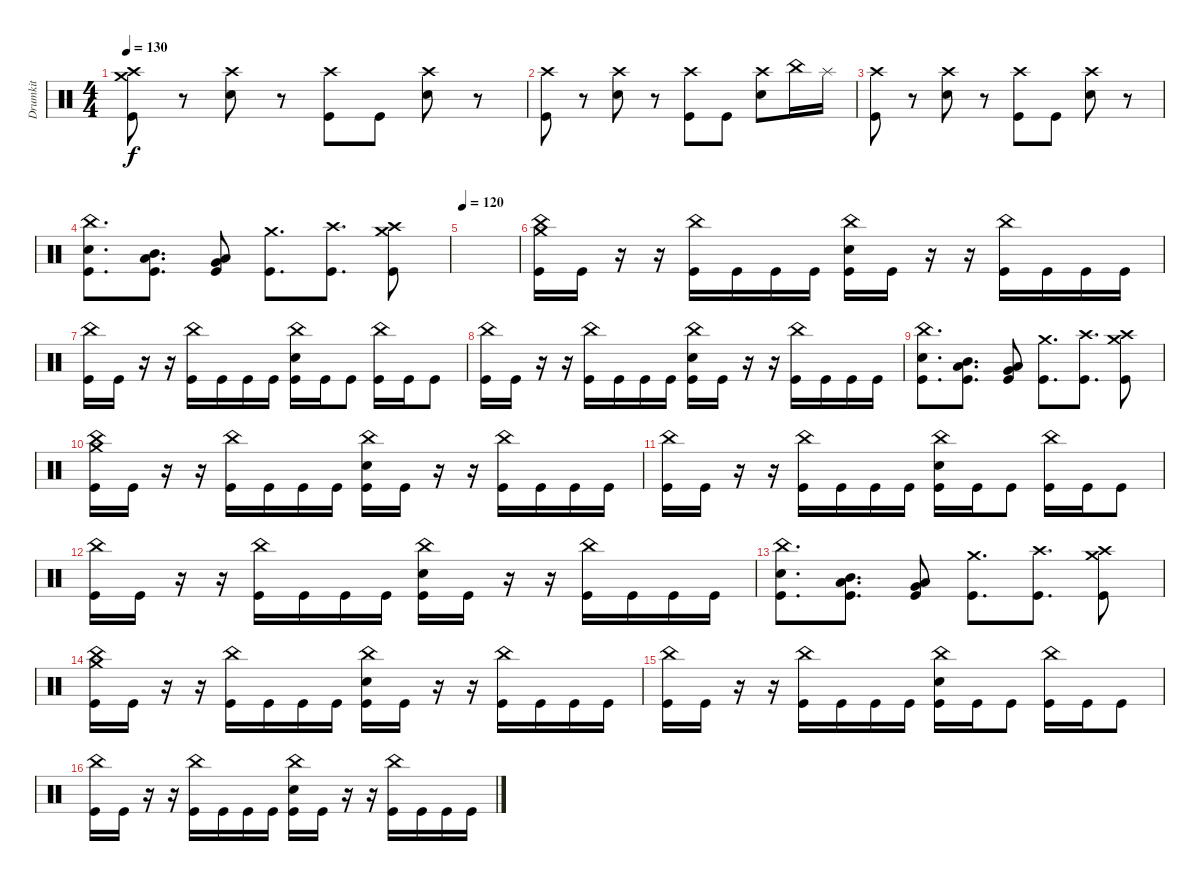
\track ("Drumkit" "Drumkit") {instrument percussion}
\staff {score}
\articulation defaults
\ts (4 4)
\tempo 130
\clef neutral
\ks c
("Kick (hit)" "Crash high (hit)" "Crash medium (hit)").8{dy f} r.8 ("Snare (hit) 2" "Crash high (hit)").8 r.8 ("Kick (hit)" "Crash high (hit)").8 "Kick (hit)".8 ("Crash high (hit)" "Snare (hit) 2").8 r.8 |
("Kick (hit)" "Crash high (hit)").8 r.8 ("Snare (hit) 2" "Crash high (hit)").8 r.8 ("Kick (hit)" "Crash high (hit)").8 "Kick (hit)".8 ("Snare (hit) 2" "Crash high (hit)").8 "China (hit)".16 "Splash (hit)".16 |
("Kick (hit)" "Crash high (hit)").8 r.8 ("Snare (hit) 2" "Crash high (hit)").8 r.8 ("Kick (hit)" "Crash high (hit)").8 "Kick (hit)".8 ("Crash high (hit)" "Snare (hit) 2").8 r.8 |
("China (hit)" "Snare (hit) 2" "Kick (hit)").8{d} ("Mid Tom (hit)" "Low Tom (hit)" "Kick (hit)").8{d} ("Kick (hit)" "Low Tom (hit)" "Very Low Tom (hit)").8 ("Crash medium (hit)" "Kick (hit)").8{d} ("Kick (hit)" "Crash high (hit)").8{d} ("Crash medium (hit)" "Crash high (hit)" "Kick (hit)").8 |
\tempo 120
|
("Kick (hit)" "China (hit)" "Crash medium (hit)").16 "Kick (hit)".16 r.16 r.16 ("Kick (hit)" "China (hit)").16 "Kick (hit)".16 "Kick (hit)".16 "Kick (hit)".16 ("Kick (hit)" "Snare (hit) 2" "China (hit)").16 "Kick (hit)".16 r.16 r.16 ("Kick (hit)" "China (hit)").16 "Kick (hit)".16 "Kick (hit)".16 "Kick (hit)".16 |
("Kick (hit)" "China (hit)").16 "Kick (hit)".16 r.16 r.16 ("Kick (hit)" "China (hit)").16 "Kick (hit)".16 "Kick (hit)".16 "Kick (hit)".16 ("Kick (hit)" "Snare (hit) 2" "China (hit)").16 "Kick (hit)".16 "Kick (hit)".8 ("Kick (hit)" "China (hit)").16 "Kick (hit)".16 "Kick (hit)".8 |
("Kick (hit)" "China (hit)").16 "Kick (hit)".16 r.16 r.16 ("Kick (hit)" "China (hit)").16 "Kick (hit)".16 "Kick (hit)".16 "Kick (hit)".16 ("Kick (hit)" "China (hit)" "Snare (hit) 2").16 "Kick (hit)".16 r.16 r.16 ("Kick (hit)" "China (hit)").16 "Kick (hit)".16 "Kick (hit)".16 "Kick (hit)".16 |
("China (hit)" "Snare (hit) 2" "Kick (hit)").8{d} ("Mid Tom (hit)" "Low Tom (hit)" "Kick (hit)").8{d} ("Kick (hit)" "Low Tom (hit)" "Very Low Tom (hit)").8 ("Crash medium (hit)" "Kick (hit)").8{d} ("Kick (hit)" "Crash high (hit)").8{d} ("Crash medium (hit)" "Crash high (hit)" "Kick (hit)").8 |
("Kick (hit)" "China (hit)" "Crash medium (hit)").16 "Kick (hit)".16 r.16 r.16 ("Kick (hit)" "China (hit)").16 "Kick (hit)".16 "Kick (hit)".16 "Kick (hit)".16 ("Kick (hit)" "Snare (hit) 2" "China (hit)").16 "Kick (hit)".16 r.16 r.16 ("Kick (hit)" "China (hit)").16 "Kick (hit)".16 "Kick (hit)".16 "Kick (hit)".16 |
("Kick (hit)" "China (hit)").16 "Kick (hit)".16 r.16 r.16 ("Kick (hit)" "China (hit)").16 "Kick (hit)".16 "Kick (hit)".16 "Kick (hit)".16 ("Kick (hit)" "Snare (hit) 2" "China (hit)").16 "Kick (hit)".16 "Kick (hit)".8 ("Kick (hit)" "China (hit)").16 "Kick (hit)".16 "Kick (hit)".8 |
("Kick (hit)" "China (hit)").16 "Kick (hit)".16 r.16 r.16 ("Kick (hit)" "China (hit)").16 "Kick (hit)".16 "Kick (hit)".16 "Kick (hit)".16 ("Kick (hit)" "China (hit)" "Snare (hit) 2").16 "Kick (hit)".16 r.16 r.16 ("Kick (hit)" "China (hit)").16 "Kick (hit)".16 "Kick (hit)".16 "Kick (hit)".16 |
("China (hit)" "Snare (hit) 2" "Kick (hit)").8{d} ("Mid Tom (hit)" "Low Tom (hit)" "Kick (hit)").8{d} ("Kick (hit)" "Low Tom (hit)" "Very Low Tom (hit)").8 ("Crash medium (hit)" "Kick (hit)").8{d} ("Kick (hit)" "Crash high (hit)").8{d} ("Crash medium (hit)" "Crash high (hit)" "Kick (hit)").8 |
("Kick (hit)" "China (hit)" "Crash medium (hit)").16 "Kick (hit)".16 r.16 r.16 ("Kick (hit)" "China (hit)").16 "Kick (hit)".16 "Kick (hit)".16 "Kick (hit)".16 ("Kick (hit)" "Snare (hit) 2" "China (hit)").16 "Kick (hit)".16 r.16 r.16 ("Kick (hit)" "China (hit)").16 "Kick (hit)".16 "Kick (hit)".16 "Kick (hit)".16 |
("Kick (hit)" "China (hit)").16 "Kick (hit)".16 r.16 r.16 ("Kick (hit)" "China (hit)").16 "Kick (hit)".16 "Kick (hit)".16 "Kick (hit)".16 ("Kick (hit)" "Snare (hit) 2" "China (hit)").16 "Kick (hit)".16 "Kick (hit)".8 ("Kick (hit)" "China (hit)").16 "Kick (hit)".16 "Kick (hit)".8 |
("Kick (hit)" "China (hit)").16 "Kick (hit)".16 r.16 r.16 ("Kick (hit)" "China (hit)").16 "Kick (hit)".16 "Kick (hit)".16 "Kick (hit)".16 ("Kick (hit)" "China (hit)" "Snare (hit) 2").16 "Kick (hit)".16 r.16 r.16 ("Kick (hit)" "China (hit)").16 "Kick (hit)".16 "Kick (hit)".16 "Kick (hit)".16
